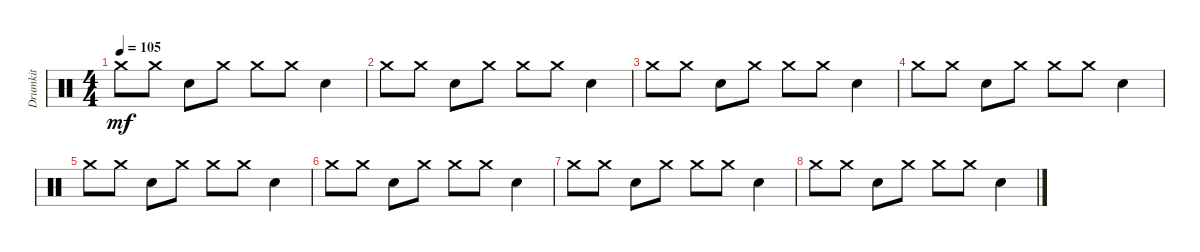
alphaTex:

\track ("Drumkit" "Drumkit") {instrument percussion}
\staff {score}
\articulation defaults
\ts (4 4)
\tempo 105
\clef neutral
\ks c "Crash medium (hit)".8{dy mf} "Crash medium (hit)".8 "Snare (hit) 2".8 "Crash medium (hit)".8 "Crash medium (hit)".8 "Crash medium (hit)".8 "Snare (hit) 2".4
|
"Crash medium (hit)".8 "Crash medium (hit)".8 "Snare (hit) 2".8 "Crash medium (hit)".8 "Crash medium (hit)".8 "Crash medium (hit)".8 "Snare (hit) 2".4 |
"Crash medium (hit)".8 "Crash medium (hit)".8 "Snare (hit) 2".8 "Crash medium (hit)".8 "Crash medium (hit)".8 "Crash medium (hit)".8 "Snare (hit) 2".4 |
"Crash medium (hit)".8 "Crash medium (hit)".8 "Snare (hit) 2".8 "Crash medium (hit)".8 "Crash medium (hit)".8 "Crash medium (hit)".8 "Snare (hit) 2".4 |
"Crash medium (hit)".8 "Crash medium (hit)".8 "Snare (hit) 2".8 "Crash medium (hit)".8 "Crash medium (hit)".8 "Crash medium (hit)".8 "Snare (hit) 2".4 |
"Crash medium (hit)".8 "Crash medium (hit)".8 "Snare (hit) 2".8 "Crash medium (hit)".8 "Crash medium (hit)".8 "Crash medium (hit)".8 "Snare (hit) 2".4 |
"Crash medium (hit)".8 "Crash medium (hit)".8 "Snare (hit) 2".8 "Crash medium (hit)".8 "Crash medium (hit)".8 "Crash medium (hit)".8 "Snare (hit) 2".4 |
"Crash medium (hit)".8 "Crash medium (hit)".8 "Snare (hit) 2".8 "Crash medium (hit)".8 "Crash medium (hit)".8 "Crash medium (hit)".8 "Snare (hit) 2".4
